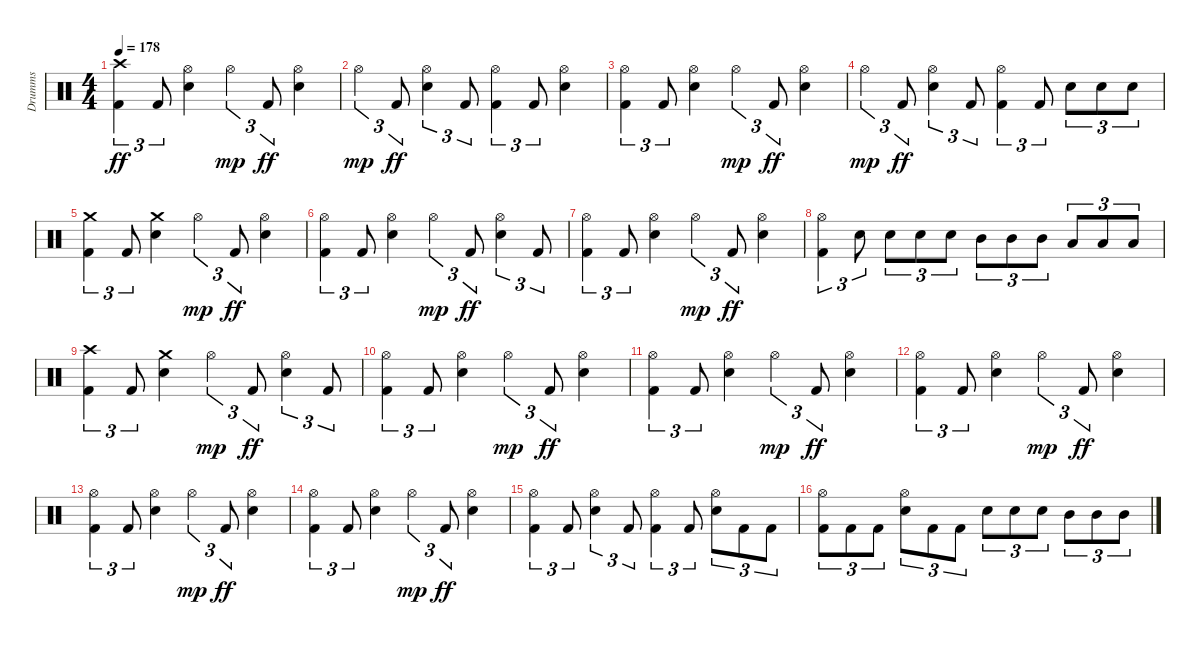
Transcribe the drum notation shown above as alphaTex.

\track ("Drumms" "Drumms") {instrument percussion}
\staff {score}
\articulation defaults
\ts (4 4)
\tempo 178
\clef neutral
\ks c
("Crash high (hit)" "Kick (hit) 2").4{tu (3 2) dy ff} "Kick (hit) 2".8{tu (3 2)} ("Hi-Hat (open)" "Electric Snare (hit)").4 "Hi-Hat (open)".4{tu (3 2) dy mp} "Kick (hit) 2".8{tu (3 2) dy ff} ("Hi-Hat (open)" "Electric Snare (hit)").4 |
"Hi-Hat (open)".4{tu (3 2) dy mp} "Kick (hit) 2".8{tu (3 2) dy ff} ("Hi-Hat (open)" "Electric Snare (hit)").4{tu (3 2)} "Kick (hit) 2".8{tu (3 2)} ("Hi-Hat (open)" "Kick (hit) 2").4{tu (3 2)} "Kick (hit) 2".8{tu (3 2)} ("Hi-Hat (open)" "Electric Snare (hit)").4 |
("Hi-Hat (open)" "Kick (hit) 2").4{tu (3 2)} "Kick (hit) 2".8{tu (3 2)} ("Hi-Hat (open)" "Electric Snare (hit)").4 "Hi-Hat (open)".4{tu (3 2) dy mp} "Kick (hit) 2".8{tu (3 2) dy ff} ("Hi-Hat (open)" "Electric Snare (hit)").4 |
"Hi-Hat (open)".4{tu (3 2) dy mp} "Kick (hit) 2".8{tu (3 2) dy ff} ("Hi-Hat (open)" "Electric Snare (hit)").4{tu (3 2)} "Kick (hit) 2".8{tu (3 2)} ("Hi-Hat (open)" "Kick (hit) 2").4{tu (3 2)} "Kick (hit) 2".8{tu (3 2)} "Electric Snare (hit)".8{tu (3 2)} "Electric Snare (hit)".8{tu (3 2)} "Electric Snare (hit)".8{tu (3 2)} |
("Crash medium (hit)" "Kick (hit) 2").4{tu (3 2)} "Kick (hit) 2".8{tu (3 2)} ("Crash medium (hit)" "Electric Snare (hit)").4 "Hi-Hat (open)".4{tu (3 2) dy mp} "Kick (hit) 2".8{tu (3 2) dy ff} ("Hi-Hat (open)" "Electric Snare (hit)").4 |
("Hi-Hat (open)" "Kick (hit) 2").4{tu (3 2)} "Kick (hit) 2".8{tu (3 2)} ("Hi-Hat (open)" "Electric Snare (hit)").4 "Hi-Hat (open)".4{tu (3 2) dy mp} "Kick (hit) 2".8{tu (3 2) dy ff} ("Hi-Hat (open)" "Electric Snare (hit)").4{tu (3 2)} "Kick (hit) 2".8{tu (3 2)} |
("Hi-Hat (open)" "Kick (hit) 2").4{tu (3 2)} "Kick (hit) 2".8{tu (3 2)} ("Hi-Hat (open)" "Electric Snare (hit)").4 "Hi-Hat (open)".4{tu (3 2) dy mp} "Kick (hit) 2".8{tu (3 2) dy ff} ("Hi-Hat (open)" "Electric Snare (hit)").4 |
("Hi-Hat (open)" "Kick (hit) 2").4{tu (3 2)} "Electric Snare (hit)".8{tu (3 2)} "Electric Snare (hit)".8{tu (3 2)} "Electric Snare (hit)".8{tu (3 2)} "Electric Snare (hit)".8{tu (3 2)} "Mid Tom (hit)".8{tu (3 2)} "Mid Tom (hit)".8{tu (3 2)} "Mid Tom (hit)".8{tu (3 2)} "Low Tom (hit)".8{tu (3 2)} "Low Tom (hit)".8{tu (3 2)} "Low Tom (hit)".8{tu (3 2)} |
("Crash high (hit)" "Kick (hit) 2").4{tu (3 2)} "Kick (hit) 2".8{tu (3 2)} ("Crash medium (hit)" "Electric Snare (hit)").4 "Hi-Hat (open)".4{tu (3 2) dy mp} "Kick (hit) 2".8{tu (3 2) dy ff} ("Hi-Hat (open)" "Electric Snare (hit)").4{tu (3 2)} "Kick (hit) 2".8{tu (3 2)} |
("Hi-Hat (open)" "Kick (hit) 2").4{tu (3 2)} "Kick (hit) 2".8{tu (3 2)} ("Hi-Hat (open)" "Electric Snare (hit)").4 "Hi-Hat (open)".4{tu (3 2) dy mp} "Kick (hit) 2".8{tu (3 2) dy ff} ("Hi-Hat (open)" "Electric Snare (hit)").4 |
("Hi-Hat (open)" "Kick (hit) 2").4{tu (3 2)} "Kick (hit) 2".8{tu (3 2)} ("Hi-Hat (open)" "Electric Snare (hit)").4 "Hi-Hat (open)".4{tu (3 2) dy mp} "Kick (hit) 2".8{tu (3 2) dy ff} ("Hi-Hat (open)" "Electric Snare (hit)").4 |
("Hi-Hat (open)" "Kick (hit) 2").4{tu (3 2)} "Kick (hit) 2".8{tu (3 2)} ("Hi-Hat (open)" "Electric Snare (hit)").4 "Hi-Hat (open)".4{tu (3 2) dy mp} "Kick (hit) 2".8{tu (3 2) dy ff} ("Hi-Hat (open)" "Electric Snare (hit)").4 |
("Hi-Hat (open)" "Kick (hit) 2").4{tu (3 2)} "Kick (hit) 2".8{tu (3 2)} ("Hi-Hat (open)" "Electric Snare (hit)").4 "Hi-Hat (open)".4{tu (3 2) dy mp} "Kick (hit) 2".8{tu (3 2) dy ff} ("Hi-Hat (open)" "Electric Snare (hit)").4 |
("Hi-Hat (open)" "Kick (hit) 2").4{tu (3 2)} "Kick (hit) 2".8{tu (3 2)} ("Hi-Hat (open)" "Electric Snare (hit)").4 "Hi-Hat (open)".4{tu (3 2) dy mp} "Kick (hit) 2".8{tu (3 2) dy ff} ("Hi-Hat (open)" "Electric Snare (hit)").4 |
("Hi-Hat (open)" "Kick (hit) 2").4{tu (3 2)} "Kick (hit) 2".8{tu (3 2)} ("Hi-Hat (open)" "Electric Snare (hit)").4{tu (3 2)} "Kick (hit) 2".8{tu (3 2)} ("Hi-Hat (open)" "Kick (hit) 2").4{tu (3 2)} "Kick (hit) 2".8{tu (3 2)} ("Hi-Hat (open)" "Electric Snare (hit)").8{tu (3 2)} "Kick (hit) 2".8{tu (3 2)} "Kick (hit) 2".8{tu (3 2)} |
("Hi-Hat (open)" "Kick (hit) 2").8{tu (3 2)} "Kick (hit) 2".8{tu (3 2)} "Kick (hit) 2".8{tu (3 2)} ("Hi-Hat (open)" "Electric Snare (hit)").8{tu (3 2)} "Kick (hit) 2".8{tu (3 2)} "Kick (hit) 2".8{tu (3 2)} "Electric Snare (hit)".8{tu (3 2)} "Electric Snare (hit)".8{tu (3 2)} "Electric Snare (hit)".8{tu (3 2)} "Mid Tom (hit)".8{tu (3 2)} "Mid Tom (hit)".8{tu (3 2)} "Mid Tom (hit)".8{tu (3 2)}
